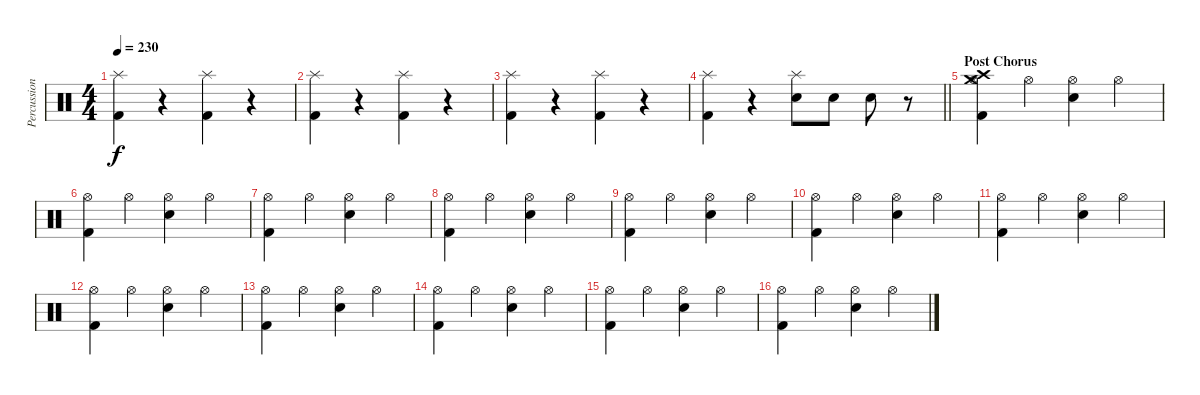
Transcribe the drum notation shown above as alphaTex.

\track ("Percussion" "Percussion") {instrument percussion}
\staff {score}
\articulation defaults
\ts (4 4)
\tempo 230
\clef neutral
\ks c
("Kick (hit) 2" "Splash (hit)").4{dy f} r.4 ("Kick (hit) 2" "Splash (hit)").4 r.4 |
("Kick (hit) 2" "Splash (hit)").4 r.4 ("Kick (hit) 2" "Splash (hit)").4 r.4 |
("Kick (hit) 2" "Splash (hit)").4 r.4 ("Kick (hit) 2" "Splash (hit)").4 r.4 |
\barLineRight lightlight
("Kick (hit) 2" "Splash (hit)").4 r.4 ("Snare (hit) 2" "Splash (hit)").8 "Snare (hit) 2".8 "Snare (hit) 2".8 r.8 |
\section ("" "Post Chorus")
("Crash medium (hit)" "Crash high (hit)" "Hi-Hat (open)" "Kick (hit) 2").4 "Hi-Hat (open)".4 ("Hi-Hat (open)" "Snare (hit) 2").4 "Hi-Hat (open)".4 |
("Hi-Hat (open)" "Kick (hit) 2").4 "Hi-Hat (open)".4 ("Hi-Hat (open)" "Snare (hit) 2").4 "Hi-Hat (open)".4 |
("Hi-Hat (open)" "Kick (hit) 2").4 "Hi-Hat (open)".4 ("Hi-Hat (open)" "Snare (hit) 2").4 "Hi-Hat (open)".4 |
("Hi-Hat (open)" "Kick (hit) 2").4 "Hi-Hat (open)".4 ("Hi-Hat (open)" "Snare (hit) 2").4 "Hi-Hat (open)".4 |
("Hi-Hat (open)" "Kick (hit) 2").4 "Hi-Hat (open)".4 ("Hi-Hat (open)" "Snare (hit) 2").4 "Hi-Hat (open)".4 |
("Hi-Hat (open)" "Kick (hit) 2").4 "Hi-Hat (open)".4 ("Hi-Hat (open)" "Snare (hit) 2").4 "Hi-Hat (open)".4 |
("Hi-Hat (open)" "Kick (hit) 2").4 "Hi-Hat (open)".4 ("Hi-Hat (open)" "Snare (hit) 2").4 "Hi-Hat (open)".4 |
("Hi-Hat (open)" "Kick (hit) 2").4 "Hi-Hat (open)".4 ("Hi-Hat (open)" "Snare (hit) 2").4 "Hi-Hat (open)".4 |
("Hi-Hat (open)" "Kick (hit) 2").4 "Hi-Hat (open)".4 ("Hi-Hat (open)" "Snare (hit) 2").4 "Hi-Hat (open)".4 |
("Hi-Hat (open)" "Kick (hit) 2").4 "Hi-Hat (open)".4 ("Hi-Hat (open)" "Snare (hit) 2").4 "Hi-Hat (open)".4 |
("Hi-Hat (open)" "Kick (hit) 2").4 "Hi-Hat (open)".4 ("Hi-Hat (open)" "Snare (hit) 2").4 "Hi-Hat (open)".4 |
("Hi-Hat (open)" "Kick (hit) 2").4 "Hi-Hat (open)".4 ("Hi-Hat (open)" "Snare (hit) 2").4 "Hi-Hat (open)".4
